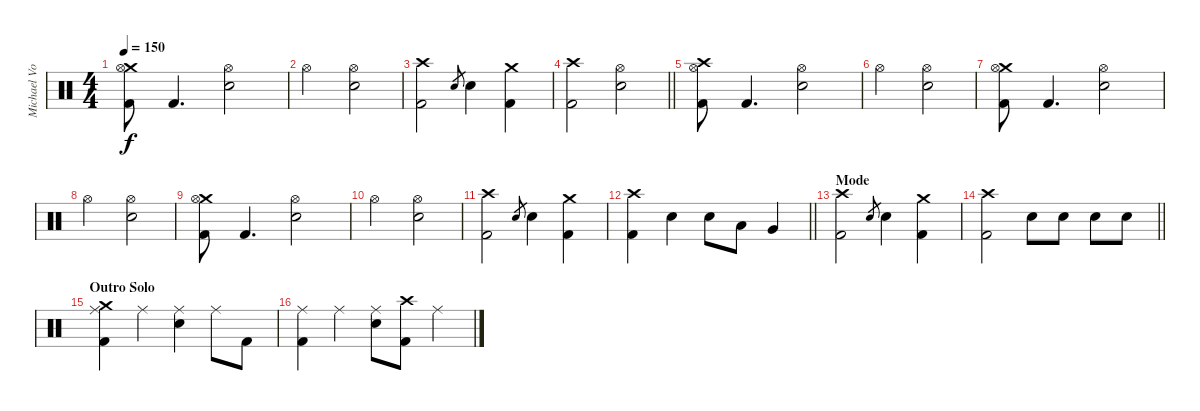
\track ("Michael Von Knorring" "Michael Vo") {instrument percussion}
\staff {score}
\articulation defaults
\ts (4 4)
\tempo 150
\clef neutral
\ks c
("Crash medium (hit)" "Hi-Hat (open)" "Kick (hit) 2").8{dy f} "Kick (hit) 2".4{d} ("Hi-Hat (open)" "Snare (hit) 2").2 |
"Hi-Hat (open)".2 ("Hi-Hat (open)" "Snare (hit) 2").2 |
("Crash high (hit)" "Kick (hit) 2").2 "Snare (hit) 2".8{gr} "Snare (hit) 2".4 ("Crash medium (hit)" "Kick (hit) 2").4 |
\barLineRight lightlight
("Crash high (hit)" "Kick (hit) 2").2 ("Hi-Hat (open)" "Snare (hit) 2").2 |
("Crash high (hit)" "Hi-Hat (open)" "Kick (hit) 2").8 "Kick (hit) 2".4{d} ("Hi-Hat (open)" "Snare (hit) 2").2 |
"Hi-Hat (open)".2 ("Hi-Hat (open)" "Snare (hit) 2").2 |
("Crash medium (hit)" "Hi-Hat (open)" "Kick (hit) 2").8 "Kick (hit) 2".4{d} ("Hi-Hat (open)" "Snare (hit) 2").2 |
"Hi-Hat (open)".2 ("Hi-Hat (open)" "Snare (hit) 2").2 |
("Crash medium (hit)" "Hi-Hat (open)" "Kick (hit) 2").8 "Kick (hit) 2".4{d} ("Hi-Hat (open)" "Snare (hit) 2").2 |
"Hi-Hat (open)".2 ("Hi-Hat (open)" "Snare (hit) 2").2 |
("Crash high (hit)" "Kick (hit) 2").2 "Snare (hit) 2".8{gr} "Snare (hit) 2".4 ("Crash medium (hit)" "Kick (hit) 2").4 |
\barLineRight lightlight
("Crash high (hit)" "Kick (hit) 2").4 "Snare (hit) 2".4 "Snare (hit) 2".8 "Low Tom (hit)".8 "Very Low Tom (hit)".4 |
\section ("" "Mode")
("Crash high (hit)" "Kick (hit) 2").2 "Snare (hit) 2".8{gr} "Snare (hit) 2".4 ("Crash medium (hit)" "Kick (hit) 2").4 |
\barLineRight lightlight
("Crash high (hit)" "Kick (hit) 2").2 "Snare (hit) 2".8 "Snare (hit) 2".8 "Snare (hit) 2".8 "Snare (hit) 2".8 |
\section ("" "Outro Solo")
("Crash medium (hit)" "Ride (middle)" "Kick (hit) 2").4 "Ride (middle)".4 ("Ride (middle)" "Snare (hit) 2").4 "Ride (middle)".8 "Kick (hit) 2".8 |
("Ride (middle)" "Kick (hit) 2").4 "Ride (middle)".4 ("Ride (middle)" "Snare (hit) 2").8 ("Crash high (hit)" "Kick (hit) 2").8 "Ride (middle)".4
